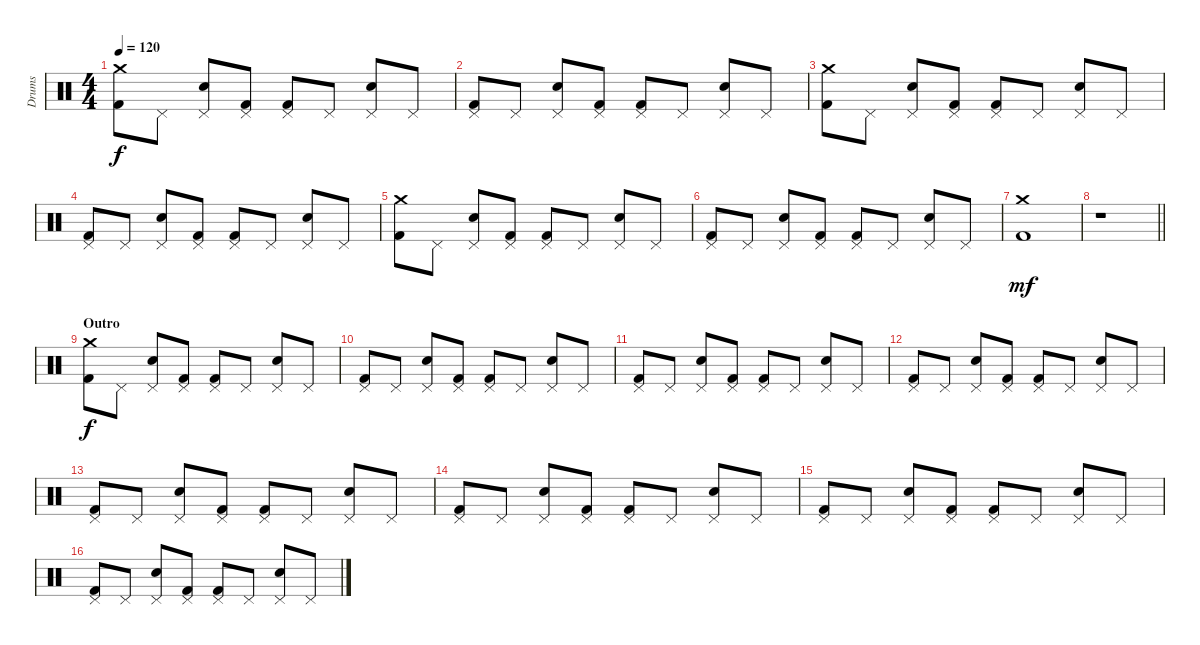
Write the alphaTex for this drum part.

\track ("Drums" "Drums") {instrument percussion}
\staff {score}
\articulation defaults
\ts (4 4)
\tempo 120
\clef neutral
\ks c
("Crash medium (hit)" "Kick (hit) 2").8{dy f} "Pedal Hi-Hat (hit)".8 ("Pedal Hi-Hat (hit)" "Electric Snare (hit)").8 ("Pedal Hi-Hat (hit)" "Kick (hit) 2").8 ("Pedal Hi-Hat (hit)" "Kick (hit) 2").8 "Pedal Hi-Hat (hit)".8 ("Pedal Hi-Hat (hit)" "Electric Snare (hit)").8 "Pedal Hi-Hat (hit)".8 |
("Pedal Hi-Hat (hit)" "Kick (hit) 2").8 "Pedal Hi-Hat (hit)".8 ("Pedal Hi-Hat (hit)" "Electric Snare (hit)").8 ("Pedal Hi-Hat (hit)" "Kick (hit) 2").8 ("Pedal Hi-Hat (hit)" "Kick (hit) 2").8 "Pedal Hi-Hat (hit)".8 ("Pedal Hi-Hat (hit)" "Electric Snare (hit)").8 "Pedal Hi-Hat (hit)".8 |
("Crash medium (hit)" "Kick (hit) 2").8 "Pedal Hi-Hat (hit)".8 ("Pedal Hi-Hat (hit)" "Electric Snare (hit)").8 ("Pedal Hi-Hat (hit)" "Kick (hit) 2").8 ("Pedal Hi-Hat (hit)" "Kick (hit) 2").8 "Pedal Hi-Hat (hit)".8 ("Pedal Hi-Hat (hit)" "Electric Snare (hit)").8 "Pedal Hi-Hat (hit)".8 |
("Pedal Hi-Hat (hit)" "Kick (hit) 2").8 "Pedal Hi-Hat (hit)".8 ("Pedal Hi-Hat (hit)" "Electric Snare (hit)").8 ("Pedal Hi-Hat (hit)" "Kick (hit) 2").8 ("Pedal Hi-Hat (hit)" "Kick (hit) 2").8 "Pedal Hi-Hat (hit)".8 ("Pedal Hi-Hat (hit)" "Electric Snare (hit)").8 "Pedal Hi-Hat (hit)".8 |
("Crash medium (hit)" "Kick (hit) 2").8 "Pedal Hi-Hat (hit)".8 ("Pedal Hi-Hat (hit)" "Electric Snare (hit)").8 ("Pedal Hi-Hat (hit)" "Kick (hit) 2").8 ("Pedal Hi-Hat (hit)" "Kick (hit) 2").8 "Pedal Hi-Hat (hit)".8 ("Pedal Hi-Hat (hit)" "Electric Snare (hit)").8 "Pedal Hi-Hat (hit)".8 |
("Pedal Hi-Hat (hit)" "Kick (hit) 2").8 "Pedal Hi-Hat (hit)".8 ("Pedal Hi-Hat (hit)" "Electric Snare (hit)").8 ("Pedal Hi-Hat (hit)" "Kick (hit) 2").8 ("Pedal Hi-Hat (hit)" "Kick (hit) 2").8 "Pedal Hi-Hat (hit)".8 ("Pedal Hi-Hat (hit)" "Electric Snare (hit)").8 "Pedal Hi-Hat (hit)".8 |
("Crash medium (hit)" "Kick (hit) 2").1{dy mf} |
\barLineRight lightlight
r.1 |
\section ("" "Outro")
("Crash medium (hit)" "Kick (hit) 2").8{dy f} "Pedal Hi-Hat (hit)".8 ("Pedal Hi-Hat (hit)" "Electric Snare (hit)").8 ("Pedal Hi-Hat (hit)" "Kick (hit) 2").8 ("Pedal Hi-Hat (hit)" "Kick (hit) 2").8 "Pedal Hi-Hat (hit)".8 ("Pedal Hi-Hat (hit)" "Electric Snare (hit)").8 "Pedal Hi-Hat (hit)".8 |
("Pedal Hi-Hat (hit)" "Kick (hit) 2").8 "Pedal Hi-Hat (hit)".8 ("Pedal Hi-Hat (hit)" "Electric Snare (hit)").8 ("Pedal Hi-Hat (hit)" "Kick (hit) 2").8 ("Pedal Hi-Hat (hit)" "Kick (hit) 2").8 "Pedal Hi-Hat (hit)".8 ("Pedal Hi-Hat (hit)" "Electric Snare (hit)").8 "Pedal Hi-Hat (hit)".8 |
("Pedal Hi-Hat (hit)" "Kick (hit) 2").8 "Pedal Hi-Hat (hit)".8 ("Pedal Hi-Hat (hit)" "Electric Snare (hit)").8 ("Pedal Hi-Hat (hit)" "Kick (hit) 2").8 ("Pedal Hi-Hat (hit)" "Kick (hit) 2").8 "Pedal Hi-Hat (hit)".8 ("Pedal Hi-Hat (hit)" "Electric Snare (hit)").8 "Pedal Hi-Hat (hit)".8 |
("Pedal Hi-Hat (hit)" "Kick (hit) 2").8 "Pedal Hi-Hat (hit)".8 ("Pedal Hi-Hat (hit)" "Electric Snare (hit)").8 ("Pedal Hi-Hat (hit)" "Kick (hit) 2").8 ("Pedal Hi-Hat (hit)" "Kick (hit) 2").8 "Pedal Hi-Hat (hit)".8 ("Pedal Hi-Hat (hit)" "Electric Snare (hit)").8 "Pedal Hi-Hat (hit)".8 |
("Pedal Hi-Hat (hit)" "Kick (hit) 2").8 "Pedal Hi-Hat (hit)".8 ("Pedal Hi-Hat (hit)" "Electric Snare (hit)").8 ("Pedal Hi-Hat (hit)" "Kick (hit) 2").8 ("Pedal Hi-Hat (hit)" "Kick (hit) 2").8 "Pedal Hi-Hat (hit)".8 ("Pedal Hi-Hat (hit)" "Electric Snare (hit)").8 "Pedal Hi-Hat (hit)".8 |
("Pedal Hi-Hat (hit)" "Kick (hit) 2").8 "Pedal Hi-Hat (hit)".8 ("Pedal Hi-Hat (hit)" "Electric Snare (hit)").8 ("Pedal Hi-Hat (hit)" "Kick (hit) 2").8 ("Pedal Hi-Hat (hit)" "Kick (hit) 2").8 "Pedal Hi-Hat (hit)".8 ("Pedal Hi-Hat (hit)" "Electric Snare (hit)").8 "Pedal Hi-Hat (hit)".8 |
("Pedal Hi-Hat (hit)" "Kick (hit) 2").8 "Pedal Hi-Hat (hit)".8 ("Pedal Hi-Hat (hit)" "Electric Snare (hit)").8 ("Pedal Hi-Hat (hit)" "Kick (hit) 2").8 ("Pedal Hi-Hat (hit)" "Kick (hit) 2").8 "Pedal Hi-Hat (hit)".8 ("Pedal Hi-Hat (hit)" "Electric Snare (hit)").8 "Pedal Hi-Hat (hit)".8 |
("Pedal Hi-Hat (hit)" "Kick (hit) 2").8 "Pedal Hi-Hat (hit)".8 ("Pedal Hi-Hat (hit)" "Electric Snare (hit)").8 ("Pedal Hi-Hat (hit)" "Kick (hit) 2").8 ("Pedal Hi-Hat (hit)" "Kick (hit) 2").8 "Pedal Hi-Hat (hit)".8 ("Pedal Hi-Hat (hit)" "Electric Snare (hit)").8 "Pedal Hi-Hat (hit)".8
